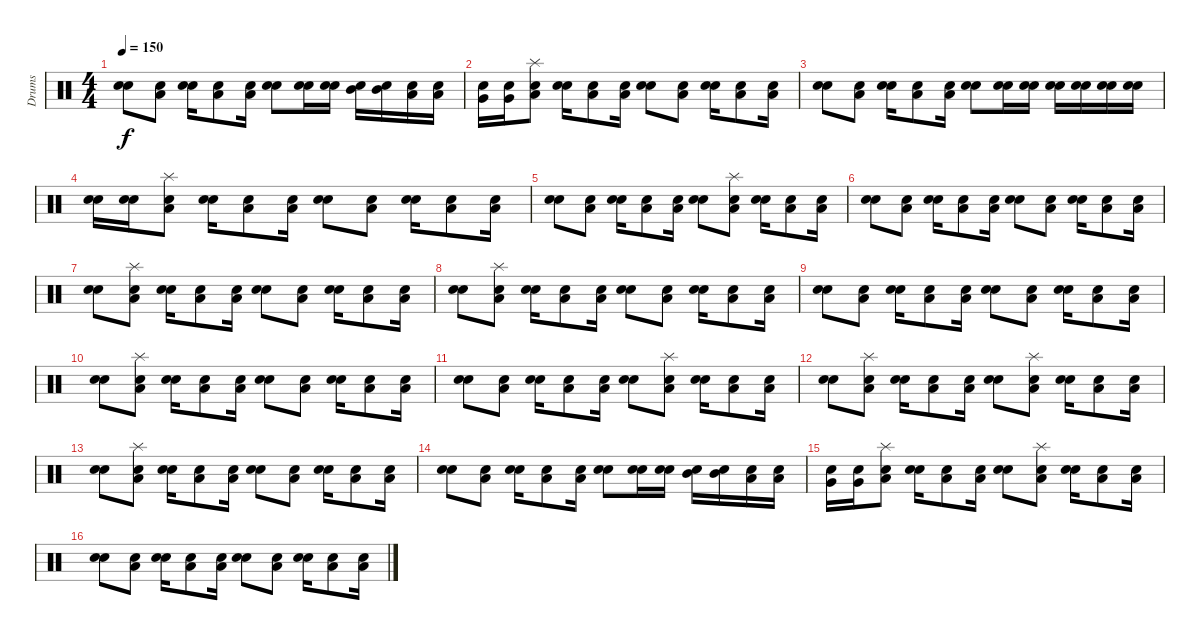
\track ("Drums" "Drums") {instrument percussion}
\staff {score}
\articulation defaults
\ts (4 4)
\tempo 150
\clef neutral
\ks c
("Snare (hit)" "Electric Snare (hit)").8{dy f} ("Snare (hit)" "Low Floor Tom (hit)").8 ("Snare (hit)" "Electric Snare (hit)").16 ("Snare (hit)" "Low Floor Tom (hit)").8 ("Snare (hit)" "Low Floor Tom (hit)").16 ("Snare (hit)" "Electric Snare (hit)").8 ("Snare (hit)" "Electric Snare (hit)").16 ("Snare (hit)" "Electric Snare (hit)").16 ("Snare (hit)" "Mid Tom (hit)").16 ("Snare (hit)" "Mid Tom (hit)").16 ("Snare (hit)" "Low Tom (hit)").16 ("Snare (hit)" "Low Tom (hit)").16 |
("Snare (hit)" "Very Low Tom (hit)").16 ("Snare (hit)" "Very Low Tom (hit)").16 ("Snare (hit)" "Low Floor Tom (hit)" "Splash (hit)").8 ("Snare (hit)" "Electric Snare (hit)").16 ("Snare (hit)" "Low Floor Tom (hit)").8 ("Snare (hit)" "Low Floor Tom (hit)").16 ("Snare (hit)" "Electric Snare (hit)").8 ("Snare (hit)" "Low Floor Tom (hit)").8 ("Snare (hit)" "Electric Snare (hit)").16 ("Snare (hit)" "Low Floor Tom (hit)").8 ("Snare (hit)" "Low Floor Tom (hit)").16 |
("Snare (hit)" "Electric Snare (hit)").8 ("Snare (hit)" "Low Floor Tom (hit)").8 ("Snare (hit)" "Electric Snare (hit)").16 ("Snare (hit)" "Low Floor Tom (hit)").8 ("Snare (hit)" "Low Floor Tom (hit)").16 ("Snare (hit)" "Electric Snare (hit)").8 ("Snare (hit)" "Electric Snare (hit)").16 ("Snare (hit)" "Electric Snare (hit)").16 ("Snare (hit)" "Electric Snare (hit)").16 ("Snare (hit)" "Electric Snare (hit)").16 ("Snare (hit)" "Electric Snare (hit)").16 ("Snare (hit)" "Electric Snare (hit)").16 |
("Snare (hit)" "Electric Snare (hit)").16 ("Snare (hit)" "Electric Snare (hit)").16 ("Snare (hit)" "Low Floor Tom (hit)" "Splash (hit)").8 ("Snare (hit)" "Electric Snare (hit)").16 ("Snare (hit)" "Low Floor Tom (hit)").8 ("Snare (hit)" "Low Floor Tom (hit)").16 ("Snare (hit)" "Electric Snare (hit)").8 ("Snare (hit)" "Low Floor Tom (hit)").8 ("Snare (hit)" "Electric Snare (hit)").16 ("Snare (hit)" "Low Floor Tom (hit)").8 ("Snare (hit)" "Low Floor Tom (hit)").16 |
("Snare (hit)" "Electric Snare (hit)").8 ("Snare (hit)" "Low Floor Tom (hit)").8 ("Snare (hit)" "Electric Snare (hit)").16 ("Snare (hit)" "Low Floor Tom (hit)").8 ("Snare (hit)" "Low Floor Tom (hit)").16 ("Snare (hit)" "Electric Snare (hit)").8 ("Snare (hit)" "Low Floor Tom (hit)" "Splash (hit)").8 ("Snare (hit)" "Electric Snare (hit)").16 ("Snare (hit)" "Low Floor Tom (hit)").8 ("Snare (hit)" "Low Floor Tom (hit)").16 |
("Snare (hit)" "Electric Snare (hit)").8 ("Snare (hit)" "Low Floor Tom (hit)").8 ("Snare (hit)" "Electric Snare (hit)").16 ("Snare (hit)" "Low Floor Tom (hit)").8 ("Snare (hit)" "Low Floor Tom (hit)").16 ("Snare (hit)" "Electric Snare (hit)").8 ("Snare (hit)" "Low Floor Tom (hit)").8 ("Snare (hit)" "Electric Snare (hit)").16 ("Snare (hit)" "Low Floor Tom (hit)").8 ("Snare (hit)" "Low Floor Tom (hit)").16 |
("Snare (hit)" "Electric Snare (hit)").8 ("Snare (hit)" "Low Floor Tom (hit)" "Splash (hit)").8 ("Snare (hit)" "Electric Snare (hit)").16 ("Snare (hit)" "Low Floor Tom (hit)").8 ("Snare (hit)" "Low Floor Tom (hit)").16 ("Snare (hit)" "Electric Snare (hit)").8 ("Snare (hit)" "Low Floor Tom (hit)").8 ("Snare (hit)" "Electric Snare (hit)").16 ("Snare (hit)" "Low Floor Tom (hit)").8 ("Snare (hit)" "Low Floor Tom (hit)").16 |
("Snare (hit)" "Electric Snare (hit)").8 ("Snare (hit)" "Low Floor Tom (hit)" "Splash (hit)").8 ("Snare (hit)" "Electric Snare (hit)").16 ("Snare (hit)" "Low Floor Tom (hit)").8 ("Snare (hit)" "Low Floor Tom (hit)").16 ("Snare (hit)" "Electric Snare (hit)").8 ("Snare (hit)" "Low Floor Tom (hit)").8 ("Snare (hit)" "Electric Snare (hit)").16 ("Snare (hit)" "Low Floor Tom (hit)").8 ("Snare (hit)" "Low Floor Tom (hit)").16 |
("Snare (hit)" "Electric Snare (hit)").8 ("Snare (hit)" "Low Floor Tom (hit)").8 ("Snare (hit)" "Electric Snare (hit)").16 ("Snare (hit)" "Low Floor Tom (hit)").8 ("Snare (hit)" "Low Floor Tom (hit)").16 ("Snare (hit)" "Electric Snare (hit)").8 ("Snare (hit)" "Low Floor Tom (hit)").8 ("Snare (hit)" "Electric Snare (hit)").16 ("Snare (hit)" "Low Floor Tom (hit)").8 ("Snare (hit)" "Low Floor Tom (hit)").16 |
("Snare (hit)" "Electric Snare (hit)").8 ("Snare (hit)" "Low Floor Tom (hit)" "Splash (hit)").8 ("Snare (hit)" "Electric Snare (hit)").16 ("Snare (hit)" "Low Floor Tom (hit)").8 ("Snare (hit)" "Low Floor Tom (hit)").16 ("Snare (hit)" "Electric Snare (hit)").8 ("Snare (hit)" "Low Floor Tom (hit)").8 ("Snare (hit)" "Electric Snare (hit)").16 ("Snare (hit)" "Low Floor Tom (hit)").8 ("Snare (hit)" "Low Floor Tom (hit)").16 |
("Snare (hit)" "Electric Snare (hit)").8 ("Snare (hit)" "Low Floor Tom (hit)").8 ("Snare (hit)" "Electric Snare (hit)").16 ("Snare (hit)" "Low Floor Tom (hit)").8 ("Snare (hit)" "Low Floor Tom (hit)").16 ("Snare (hit)" "Electric Snare (hit)").8 ("Snare (hit)" "Low Floor Tom (hit)" "Splash (hit)").8 ("Snare (hit)" "Electric Snare (hit)").16 ("Snare (hit)" "Low Floor Tom (hit)").8 ("Snare (hit)" "Low Floor Tom (hit)").16 |
("Snare (hit)" "Electric Snare (hit)").8 ("Snare (hit)" "Low Floor Tom (hit)" "Splash (hit)").8 ("Snare (hit)" "Electric Snare (hit)").16 ("Snare (hit)" "Low Floor Tom (hit)").8 ("Snare (hit)" "Low Floor Tom (hit)").16 ("Snare (hit)" "Electric Snare (hit)").8 ("Snare (hit)" "Low Floor Tom (hit)" "Splash (hit)").8 ("Snare (hit)" "Electric Snare (hit)").16 ("Snare (hit)" "Low Floor Tom (hit)").8 ("Snare (hit)" "Low Floor Tom (hit)").16 |
("Snare (hit)" "Electric Snare (hit)").8 ("Snare (hit)" "Low Floor Tom (hit)" "Splash (hit)").8 ("Snare (hit)" "Electric Snare (hit)").16 ("Snare (hit)" "Low Floor Tom (hit)").8 ("Snare (hit)" "Low Floor Tom (hit)").16 ("Snare (hit)" "Electric Snare (hit)").8 ("Snare (hit)" "Low Floor Tom (hit)").8 ("Snare (hit)" "Electric Snare (hit)").16 ("Snare (hit)" "Low Floor Tom (hit)").8 ("Snare (hit)" "Low Floor Tom (hit)").16 |
("Snare (hit)" "Electric Snare (hit)").8 ("Snare (hit)" "Low Floor Tom (hit)").8 ("Snare (hit)" "Electric Snare (hit)").16 ("Snare (hit)" "Low Floor Tom (hit)").8 ("Snare (hit)" "Low Floor Tom (hit)").16 ("Snare (hit)" "Electric Snare (hit)").8 ("Snare (hit)" "Electric Snare (hit)").16 ("Snare (hit)" "Electric Snare (hit)").16 ("Snare (hit)" "Mid Tom (hit)").16 ("Snare (hit)" "Mid Tom (hit)").16 ("Snare (hit)" "Low Tom (hit)").16 ("Snare (hit)" "Low Tom (hit)").16 |
("Snare (hit)" "Very Low Tom (hit)").16 ("Snare (hit)" "Very Low Tom (hit)").16 ("Snare (hit)" "Low Floor Tom (hit)" "Splash (hit)").8 ("Snare (hit)" "Electric Snare (hit)").16 ("Snare (hit)" "Low Floor Tom (hit)").8 ("Snare (hit)" "Low Floor Tom (hit)").16 ("Snare (hit)" "Electric Snare (hit)").8 ("Snare (hit)" "Low Floor Tom (hit)" "Splash (hit)").8 ("Snare (hit)" "Electric Snare (hit)").16 ("Snare (hit)" "Low Floor Tom (hit)").8 ("Snare (hit)" "Low Floor Tom (hit)").16 |
("Snare (hit)" "Electric Snare (hit)").8 ("Snare (hit)" "Low Floor Tom (hit)").8 ("Snare (hit)" "Electric Snare (hit)").16 ("Snare (hit)" "Low Floor Tom (hit)").8 ("Snare (hit)" "Low Floor Tom (hit)").16 ("Snare (hit)" "Electric Snare (hit)").8 ("Snare (hit)" "Low Floor Tom (hit)").8 ("Snare (hit)" "Electric Snare (hit)").16 ("Snare (hit)" "Low Floor Tom (hit)").8 ("Snare (hit)" "Low Floor Tom (hit)").16
